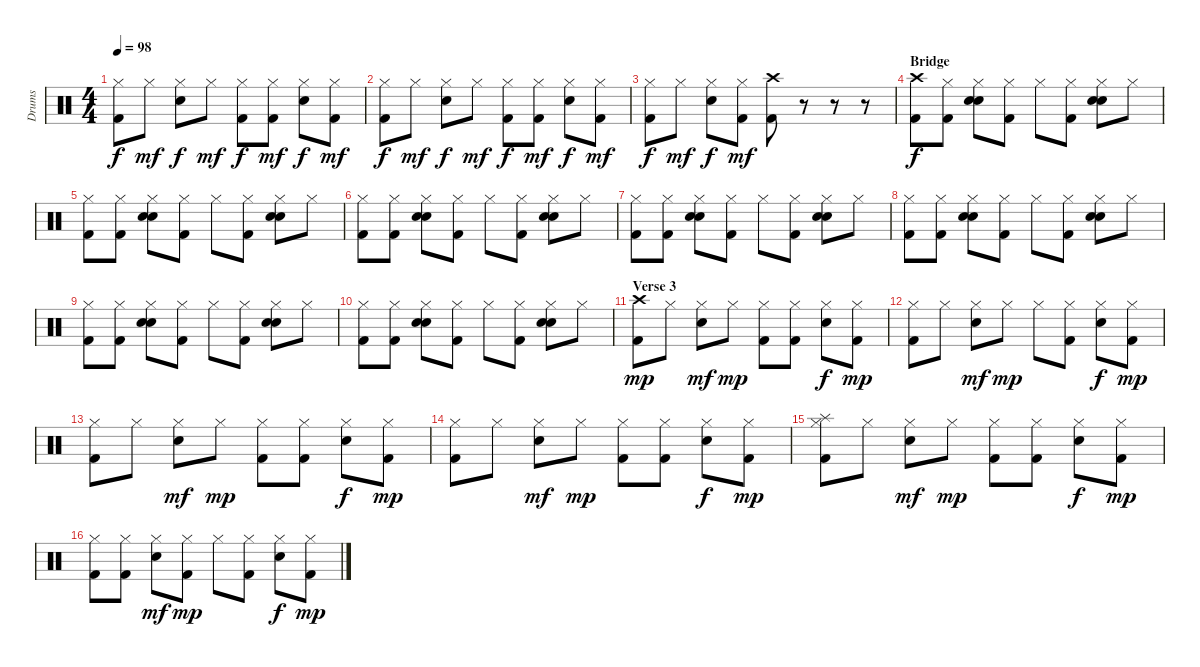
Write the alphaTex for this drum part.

\track ("Drums" "Drums") {instrument percussion}
\staff {score}
\articulation defaults
\ts (4 4)
\tempo 98
\clef neutral
\ks c
("Hi-Hat (closed)" "Kick (hit) 2").8{dy f} "Hi-Hat (closed)".8{dy mf} ("Hi-Hat (closed)" "Snare (hit) 2").8{dy f} "Hi-Hat (closed)".8{dy mf} ("Hi-Hat (closed)" "Kick (hit) 2").8{dy f} ("Hi-Hat (closed)" "Kick (hit) 2").8{dy mf} ("Hi-Hat (closed)" "Snare (hit) 2").8{dy f} ("Hi-Hat (closed)" "Kick (hit) 2").8{dy mf} |
("Hi-Hat (closed)" "Kick (hit) 2").8{dy f} "Hi-Hat (closed)".8{dy mf} ("Hi-Hat (closed)" "Snare (hit) 2").8{dy f} "Hi-Hat (closed)".8{dy mf} ("Hi-Hat (closed)" "Kick (hit) 2").8{dy f} ("Hi-Hat (closed)" "Kick (hit) 2").8{dy mf} ("Hi-Hat (closed)" "Snare (hit) 2").8{dy f} ("Hi-Hat (closed)" "Kick (hit) 2").8{dy mf} |
("Hi-Hat (closed)" "Kick (hit) 2").8{dy f} "Hi-Hat (closed)".8{dy mf} ("Hi-Hat (closed)" "Snare (hit) 2").8{dy f} ("Hi-Hat (closed)" "Kick (hit) 2").8{dy mf} ("Crash high (hit)" "Kick (hit) 2").8 r.8 r.8 r.8 |
\section ("" "Bridge")
("Crash high (hit)" "Kick (hit) 2").8{dy f} ("Hi-Hat (closed)" "Kick (hit) 2").8 ("Hand Clap (hit)" "Hi-Hat (closed)" "Snare (hit) 2").8 ("Hi-Hat (closed)" "Kick (hit) 2").8 "Hi-Hat (closed)".8 ("Hi-Hat (closed)" "Kick (hit) 2").8 ("Hand Clap (hit)" "Hi-Hat (closed)" "Snare (hit) 2").8 "Hi-Hat (closed)".8 |
("Hi-Hat (closed)" "Kick (hit) 2").8 ("Hi-Hat (closed)" "Kick (hit) 2").8 ("Hand Clap (hit)" "Hi-Hat (closed)" "Snare (hit) 2").8 ("Hi-Hat (closed)" "Kick (hit) 2").8 "Hi-Hat (closed)".8 ("Hi-Hat (closed)" "Kick (hit) 2").8 ("Hand Clap (hit)" "Hi-Hat (closed)" "Snare (hit) 2").8 "Hi-Hat (closed)".8 |
("Hi-Hat (closed)" "Kick (hit) 2").8 ("Hi-Hat (closed)" "Kick (hit) 2").8 ("Hand Clap (hit)" "Hi-Hat (closed)" "Snare (hit) 2").8 ("Hi-Hat (closed)" "Kick (hit) 2").8 "Hi-Hat (closed)".8 ("Hi-Hat (closed)" "Kick (hit) 2").8 ("Hand Clap (hit)" "Hi-Hat (closed)" "Snare (hit) 2").8 "Hi-Hat (closed)".8 |
("Hi-Hat (closed)" "Kick (hit) 2").8 ("Hi-Hat (closed)" "Kick (hit) 2").8 ("Hand Clap (hit)" "Hi-Hat (closed)" "Snare (hit) 2").8 ("Hi-Hat (closed)" "Kick (hit) 2").8 "Hi-Hat (closed)".8 ("Hi-Hat (closed)" "Kick (hit) 2").8 ("Hand Clap (hit)" "Hi-Hat (closed)" "Snare (hit) 2").8 "Hi-Hat (closed)".8 |
("Hi-Hat (closed)" "Kick (hit) 2").8 ("Hi-Hat (closed)" "Kick (hit) 2").8 ("Hand Clap (hit)" "Hi-Hat (closed)" "Snare (hit) 2").8 ("Hi-Hat (closed)" "Kick (hit) 2").8 "Hi-Hat (closed)".8 ("Hi-Hat (closed)" "Kick (hit) 2").8 ("Hand Clap (hit)" "Hi-Hat (closed)" "Snare (hit) 2").8 "Hi-Hat (closed)".8 |
("Hi-Hat (closed)" "Kick (hit) 2").8 ("Hi-Hat (closed)" "Kick (hit) 2").8 ("Hand Clap (hit)" "Hi-Hat (closed)" "Snare (hit) 2").8 ("Hi-Hat (closed)" "Kick (hit) 2").8 "Hi-Hat (closed)".8 ("Hi-Hat (closed)" "Kick (hit) 2").8 ("Hand Clap (hit)" "Hi-Hat (closed)" "Snare (hit) 2").8 "Hi-Hat (closed)".8 |
("Hi-Hat (closed)" "Kick (hit) 2").8 ("Hi-Hat (closed)" "Kick (hit) 2").8 ("Hand Clap (hit)" "Hi-Hat (closed)" "Snare (hit) 2").8 ("Hi-Hat (closed)" "Kick (hit) 2").8 "Hi-Hat (closed)".8 ("Hi-Hat (closed)" "Kick (hit) 2").8 ("Hand Clap (hit)" "Hi-Hat (closed)" "Snare (hit) 2").8 "Hi-Hat (closed)".8 |
\section ("" "Verse 3")
("Crash high (hit)" "Kick (hit) 2").8{dy mp} "Hi-Hat (closed)".8 ("Hi-Hat (closed)" "Snare (hit) 2").8{dy mf} "Hi-Hat (closed)".8{dy mp} ("Hi-Hat (closed)" "Kick (hit) 2").8 ("Hi-Hat (closed)" "Kick (hit) 2").8 ("Hi-Hat (closed)" "Snare (hit) 2").8{dy f} ("Hi-Hat (closed)" "Kick (hit) 2").8{dy mp} |
("Hi-Hat (closed)" "Kick (hit) 2").8 "Hi-Hat (closed)".8 ("Hi-Hat (closed)" "Snare (hit) 2").8{dy mf} "Hi-Hat (closed)".8{dy mp} "Hi-Hat (closed)".8 ("Hi-Hat (closed)" "Kick (hit) 2").8 ("Hi-Hat (closed)" "Snare (hit) 2").8{dy f} ("Hi-Hat (closed)" "Kick (hit) 2").8{dy mp} |
("Hi-Hat (closed)" "Kick (hit) 2").8 "Hi-Hat (closed)".8 ("Hi-Hat (closed)" "Snare (hit) 2").8{dy mf} "Hi-Hat (closed)".8{dy mp} ("Hi-Hat (closed)" "Kick (hit) 2").8 ("Hi-Hat (closed)" "Kick (hit) 2").8 ("Hi-Hat (closed)" "Snare (hit) 2").8{dy f} ("Hi-Hat (closed)" "Kick (hit) 2").8{dy mp} |
("Hi-Hat (closed)" "Kick (hit) 2").8 "Hi-Hat (closed)".8 ("Hi-Hat (closed)" "Snare (hit) 2").8{dy mf} "Hi-Hat (closed)".8{dy mp} ("Hi-Hat (closed)" "Kick (hit) 2").8 ("Hi-Hat (closed)" "Kick (hit) 2").8 ("Hi-Hat (closed)" "Snare (hit) 2").8{dy f} ("Hi-Hat (closed)" "Kick (hit) 2").8{dy mp} |
("Splash (hit)" "Hi-Hat (closed)" "Kick (hit) 2").8 "Hi-Hat (closed)".8 ("Hi-Hat (closed)" "Snare (hit) 2").8{dy mf} "Hi-Hat (closed)".8{dy mp} ("Hi-Hat (closed)" "Kick (hit) 2").8 ("Hi-Hat (closed)" "Kick (hit) 2").8 ("Hi-Hat (closed)" "Snare (hit) 2").8{dy f} ("Hi-Hat (closed)" "Kick (hit) 2").8{dy mp} |
("Hi-Hat (closed)" "Kick (hit) 2").8 ("Hi-Hat (closed)" "Kick (hit) 2").8 ("Hi-Hat (closed)" "Snare (hit) 2").8{dy mf} ("Hi-Hat (closed)" "Kick (hit) 2").8{dy mp} "Hi-Hat (closed)".8 ("Hi-Hat (closed)" "Kick (hit) 2").8 ("Hi-Hat (closed)" "Snare (hit) 2").8{dy f} ("Hi-Hat (closed)" "Kick (hit) 2").8{dy mp}
